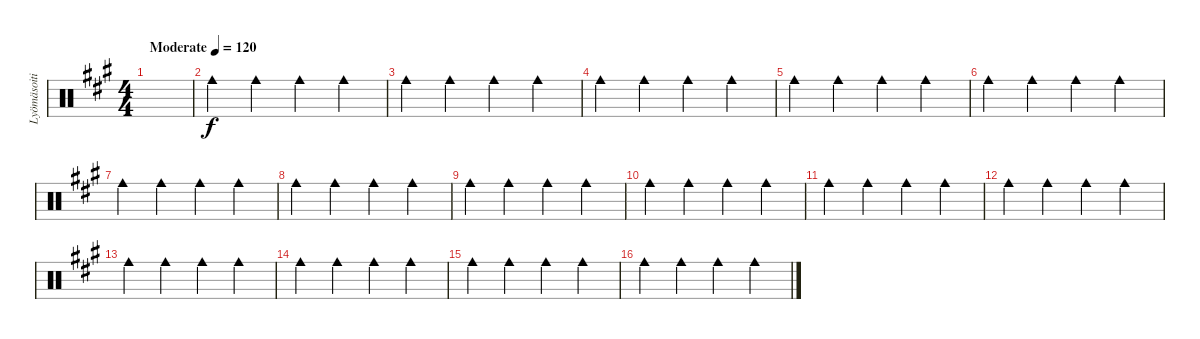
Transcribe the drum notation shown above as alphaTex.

\track ("Lyömäsoitin" "Lyömäsoiti") {instrument percussion}
\staff {score}
\articulation defaults
\ts (4 4)
\tempo (120 "Moderate")
\clef neutral
\ks f#minor
|
"Cowbell medium (hit)".4 "Cowbell medium (hit)".4 "Cowbell medium (hit)".4 "Cowbell medium (hit)".4 |
"Cowbell medium (hit)".4 "Cowbell medium (hit)".4 "Cowbell medium (hit)".4 "Cowbell medium (hit)".4 |
"Cowbell medium (hit)".4 "Cowbell medium (hit)".4 "Cowbell medium (hit)".4 "Cowbell medium (hit)".4 |
"Cowbell medium (hit)".4 "Cowbell medium (hit)".4 "Cowbell medium (hit)".4 "Cowbell medium (hit)".4 |
"Cowbell medium (hit)".4 "Cowbell medium (hit)".4 "Cowbell medium (hit)".4 "Cowbell medium (hit)".4 |
"Cowbell medium (hit)".4 "Cowbell medium (hit)".4 "Cowbell medium (hit)".4 "Cowbell medium (hit)".4 |
"Cowbell medium (hit)".4 "Cowbell medium (hit)".4 "Cowbell medium (hit)".4 "Cowbell medium (hit)".4 |
"Cowbell medium (hit)".4 "Cowbell medium (hit)".4 "Cowbell medium (hit)".4 "Cowbell medium (hit)".4 |
"Cowbell medium (hit)".4 "Cowbell medium (hit)".4 "Cowbell medium (hit)".4 "Cowbell medium (hit)".4 |
"Cowbell medium (hit)".4 "Cowbell medium (hit)".4 "Cowbell medium (hit)".4 "Cowbell medium (hit)".4 |
"Cowbell medium (hit)".4 "Cowbell medium (hit)".4 "Cowbell medium (hit)".4 "Cowbell medium (hit)".4 |
"Cowbell medium (hit)".4 "Cowbell medium (hit)".4 "Cowbell medium (hit)".4 "Cowbell medium (hit)".4 |
"Cowbell medium (hit)".4 "Cowbell medium (hit)".4 "Cowbell medium (hit)".4 "Cowbell medium (hit)".4 |
"Cowbell medium (hit)".4 "Cowbell medium (hit)".4 "Cowbell medium (hit)".4 "Cowbell medium (hit)".4 |
"Cowbell medium (hit)".4 "Cowbell medium (hit)".4 "Cowbell medium (hit)".4 "Cowbell medium (hit)".4
